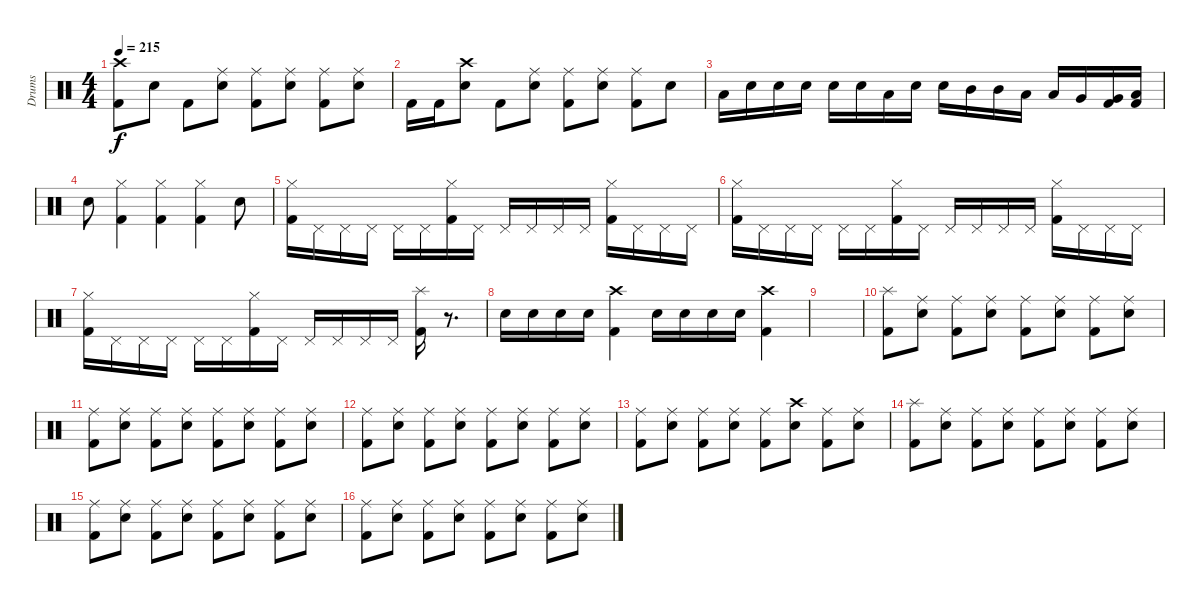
\track ("Drums" "Drums") {instrument percussion}
\staff {score}
\articulation defaults
\ts (4 4)
\tempo 215
\clef neutral
\ks c
("Crash high (hit)" "Kick (hit) 2").8{dy f} "Electric Snare (hit)".8 "Kick (hit) 2".8 ("Electric Snare (hit)" "Ride (middle)").8 ("Ride (middle)" "Kick (hit) 2").8 ("Electric Snare (hit)" "Ride (middle)").8 ("Ride (middle)" "Kick (hit) 2").8 ("Electric Snare (hit)" "Ride (middle)").8 |
"Kick (hit) 2".16 "Kick (hit) 2".16 ("Electric Snare (hit)" "Crash high (hit)").8 "Kick (hit) 2".8 ("Electric Snare (hit)" "Ride (middle)").8 ("Ride (middle)" "Kick (hit) 2").8 ("Electric Snare (hit)" "Ride (middle)").8 ("Ride (middle)" "Kick (hit) 2").8 "Electric Snare (hit)".8 |
"Low Floor Tom (hit)".16 "Electric Snare (hit)".16 "Electric Snare (hit)".16 "Electric Snare (hit)".16 "Electric Snare (hit)".16 "Electric Snare (hit)".16 "Low Floor Tom (hit)".16 "Electric Snare (hit)".16 "Electric Snare (hit)".16 "Mid Tom (hit)".16 "Mid Tom (hit)".16 "Low Tom (hit)".16 "Low Tom (hit)".16 "Very Low Tom (hit)".16 ("Very Low Tom (hit)" "Kick (hit) 2").16 ("Low Floor Tom (hit)" "Kick (hit) 2").16 |
"Electric Snare (hit)".8 ("Hi-Hat (closed)" "Kick (hit) 2").4 ("Hi-Hat (closed)" "Kick (hit) 2").4 ("Hi-Hat (closed)" "Kick (hit) 2").4 "Electric Snare (hit)".8 |
("Hi-Hat (closed)" "Kick (hit) 2").16 "Pedal Hi-Hat (hit)".16 "Pedal Hi-Hat (hit)".16 "Pedal Hi-Hat (hit)".16 "Pedal Hi-Hat (hit)".16 "Pedal Hi-Hat (hit)".16 ("Hi-Hat (closed)" "Kick (hit) 2").16 "Pedal Hi-Hat (hit)".16 "Pedal Hi-Hat (hit)".16 "Pedal Hi-Hat (hit)".16 "Pedal Hi-Hat (hit)".16 "Pedal Hi-Hat (hit)".16 ("Hi-Hat (closed)" "Kick (hit) 2").16 "Pedal Hi-Hat (hit)".16 "Pedal Hi-Hat (hit)".16 "Pedal Hi-Hat (hit)".16 |
("Hi-Hat (closed)" "Kick (hit) 2").16 "Pedal Hi-Hat (hit)".16 "Pedal Hi-Hat (hit)".16 "Pedal Hi-Hat (hit)".16 "Pedal Hi-Hat (hit)".16 "Pedal Hi-Hat (hit)".16 ("Hi-Hat (closed)" "Kick (hit) 2").16 "Pedal Hi-Hat (hit)".16 "Pedal Hi-Hat (hit)".16 "Pedal Hi-Hat (hit)".16 "Pedal Hi-Hat (hit)".16 "Pedal Hi-Hat (hit)".16 ("Hi-Hat (closed)" "Kick (hit) 2").16 "Pedal Hi-Hat (hit)".16 "Pedal Hi-Hat (hit)".16 "Pedal Hi-Hat (hit)".16 |
("Hi-Hat (closed)" "Kick (hit) 2").16 "Pedal Hi-Hat (hit)".16 "Pedal Hi-Hat (hit)".16 "Pedal Hi-Hat (hit)".16 "Pedal Hi-Hat (hit)".16 "Pedal Hi-Hat (hit)".16 ("Hi-Hat (closed)" "Kick (hit) 2").16 "Pedal Hi-Hat (hit)".16 "Pedal Hi-Hat (hit)".16 "Pedal Hi-Hat (hit)".16 "Pedal Hi-Hat (hit)".16 "Pedal Hi-Hat (hit)".16 ("Splash (hit)" "Kick (hit) 2").16 r.8{d} |
"Electric Snare (hit)".16 "Electric Snare (hit)".16 "Electric Snare (hit)".16 "Electric Snare (hit)".16 ("Crash high (hit)" "Kick (hit) 2").4 "Electric Snare (hit)".16 "Electric Snare (hit)".16 "Electric Snare (hit)".16 "Electric Snare (hit)".16 ("Crash high (hit)" "Kick (hit) 2").4 |
|
("Splash (hit)" "Kick (hit) 2").8 ("Electric Snare (hit)" "Ride (middle)").8 ("Ride (middle)" "Kick (hit) 2").8 ("Electric Snare (hit)" "Ride (middle)").8 ("Ride (middle)" "Kick (hit) 2").8 ("Electric Snare (hit)" "Ride (middle)").8 ("Ride (middle)" "Kick (hit) 2").8 ("Electric Snare (hit)" "Ride (middle)").8 |
("Ride (middle)" "Kick (hit) 2").8 ("Electric Snare (hit)" "Ride (middle)").8 ("Ride (middle)" "Kick (hit) 2").8 ("Electric Snare (hit)" "Ride (middle)").8 ("Ride (middle)" "Kick (hit) 2").8 ("Electric Snare (hit)" "Ride (middle)").8 ("Ride (middle)" "Kick (hit) 2").8 ("Electric Snare (hit)" "Ride (middle)").8 |
("Ride (middle)" "Kick (hit) 2").8 ("Electric Snare (hit)" "Ride (middle)").8 ("Ride (middle)" "Kick (hit) 2").8 ("Electric Snare (hit)" "Ride (middle)").8 ("Ride (middle)" "Kick (hit) 2").8 ("Electric Snare (hit)" "Ride (middle)").8 ("Ride (middle)" "Kick (hit) 2").8 ("Electric Snare (hit)" "Ride (middle)").8 |
("Ride (middle)" "Kick (hit) 2").8 ("Electric Snare (hit)" "Ride (middle)").8 ("Ride (middle)" "Kick (hit) 2").8 ("Electric Snare (hit)" "Ride (middle)").8 ("Ride (middle)" "Kick (hit) 2").8 ("Electric Snare (hit)" "Crash high (hit)").8 ("Ride (middle)" "Kick (hit) 2").8 ("Electric Snare (hit)" "Ride (middle)").8 |
("Splash (hit)" "Kick (hit) 2").8 ("Electric Snare (hit)" "Ride (middle)").8 ("Ride (middle)" "Kick (hit) 2").8 ("Electric Snare (hit)" "Ride (middle)").8 ("Ride (middle)" "Kick (hit) 2").8 ("Electric Snare (hit)" "Ride (middle)").8 ("Ride (middle)" "Kick (hit) 2").8 ("Electric Snare (hit)" "Ride (middle)").8 |
("Ride (middle)" "Kick (hit) 2").8 ("Electric Snare (hit)" "Ride (middle)").8 ("Ride (middle)" "Kick (hit) 2").8 ("Electric Snare (hit)" "Ride (middle)").8 ("Ride (middle)" "Kick (hit) 2").8 ("Electric Snare (hit)" "Ride (middle)").8 ("Ride (middle)" "Kick (hit) 2").8 ("Electric Snare (hit)" "Ride (middle)").8 |
("Ride (middle)" "Kick (hit) 2").8 ("Electric Snare (hit)" "Ride (middle)").8 ("Ride (middle)" "Kick (hit) 2").8 ("Electric Snare (hit)" "Ride (middle)").8 ("Ride (middle)" "Kick (hit) 2").8 ("Electric Snare (hit)" "Ride (middle)").8 ("Ride (middle)" "Kick (hit) 2").8 ("Electric Snare (hit)" "Ride (middle)").8
